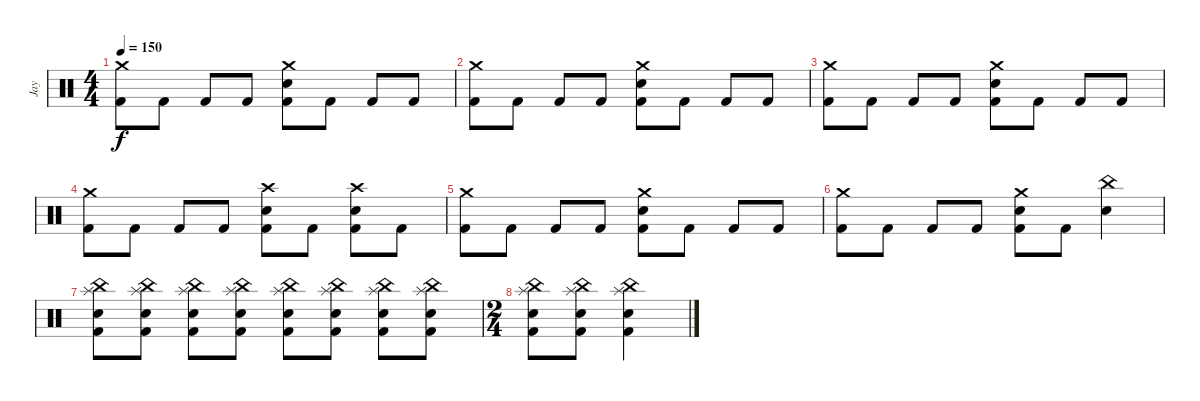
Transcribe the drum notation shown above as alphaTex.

\track ("Jay" "Jay") {instrument percussion}
\staff {score}
\articulation defaults
\ts (4 4)
\tempo 150
\clef neutral
\ks c
("Crash medium (hit)" "Kick (hit) 2").8{dy f} "Kick (hit) 2".8 "Kick (hit) 2".8 "Kick (hit) 2".8 ("Crash medium (hit)" "Electric Snare (hit)" "Kick (hit) 2").8 "Kick (hit) 2".8 "Kick (hit) 2".8 "Kick (hit) 2".8 |
("Crash medium (hit)" "Kick (hit) 2").8 "Kick (hit) 2".8 "Kick (hit) 2".8 "Kick (hit) 2".8 ("Crash medium (hit)" "Electric Snare (hit)" "Kick (hit) 2").8 "Kick (hit) 2".8 "Kick (hit) 2".8 "Kick (hit) 2".8 |
("Crash medium (hit)" "Kick (hit) 2").8 "Kick (hit) 2".8 "Kick (hit) 2".8 "Kick (hit) 2".8 ("Crash medium (hit)" "Electric Snare (hit)" "Kick (hit) 2").8 "Kick (hit) 2".8 "Kick (hit) 2".8 "Kick (hit) 2".8 |
("Crash medium (hit)" "Kick (hit) 2").8 "Kick (hit) 2".8 "Kick (hit) 2".8 "Kick (hit) 2".8 ("Crash high (hit)" "Electric Snare (hit)" "Kick (hit) 2").8 "Kick (hit) 2".8 ("Crash high (hit)" "Electric Snare (hit)" "Kick (hit) 2").8 "Kick (hit) 2".8 |
("Crash medium (hit)" "Kick (hit) 2").8 "Kick (hit) 2".8 "Kick (hit) 2".8 "Kick (hit) 2".8 ("Crash medium (hit)" "Electric Snare (hit)" "Kick (hit) 2").8 "Kick (hit) 2".8 "Kick (hit) 2".8 "Kick (hit) 2".8 |
("Crash medium (hit)" "Kick (hit) 2").8 "Kick (hit) 2".8 "Kick (hit) 2".8 "Kick (hit) 2".8 ("Crash medium (hit)" "Electric Snare (hit)" "Kick (hit) 2").8 "Kick (hit) 2".8 ("China (hit)" "Electric Snare (hit)").4 |
("China (hit)" "Splash (hit)" "Electric Snare (hit)" "Kick (hit) 2").8 ("China (hit)" "Splash (hit)" "Electric Snare (hit)" "Kick (hit) 2").8 ("China (hit)" "Splash (hit)" "Electric Snare (hit)" "Kick (hit) 2").8 ("China (hit)" "Splash (hit)" "Electric Snare (hit)" "Kick (hit) 2").8 ("China (hit)" "Splash (hit)" "Electric Snare (hit)" "Kick (hit) 2").8 ("China (hit)" "Splash (hit)" "Electric Snare (hit)" "Kick (hit) 2").8 ("China (hit)" "Splash (hit)" "Electric Snare (hit)" "Kick (hit) 2").8 ("China (hit)" "Splash (hit)" "Electric Snare (hit)" "Kick (hit) 2").8 |
\ts (2 4)
("China (hit)" "Splash (hit)" "Electric Snare (hit)" "Kick (hit) 2").8 ("China (hit)" "Splash (hit)" "Electric Snare (hit)" "Kick (hit) 2").8 ("China (hit)" "Splash (hit)" "Electric Snare (hit)" "Kick (hit) 2").4
